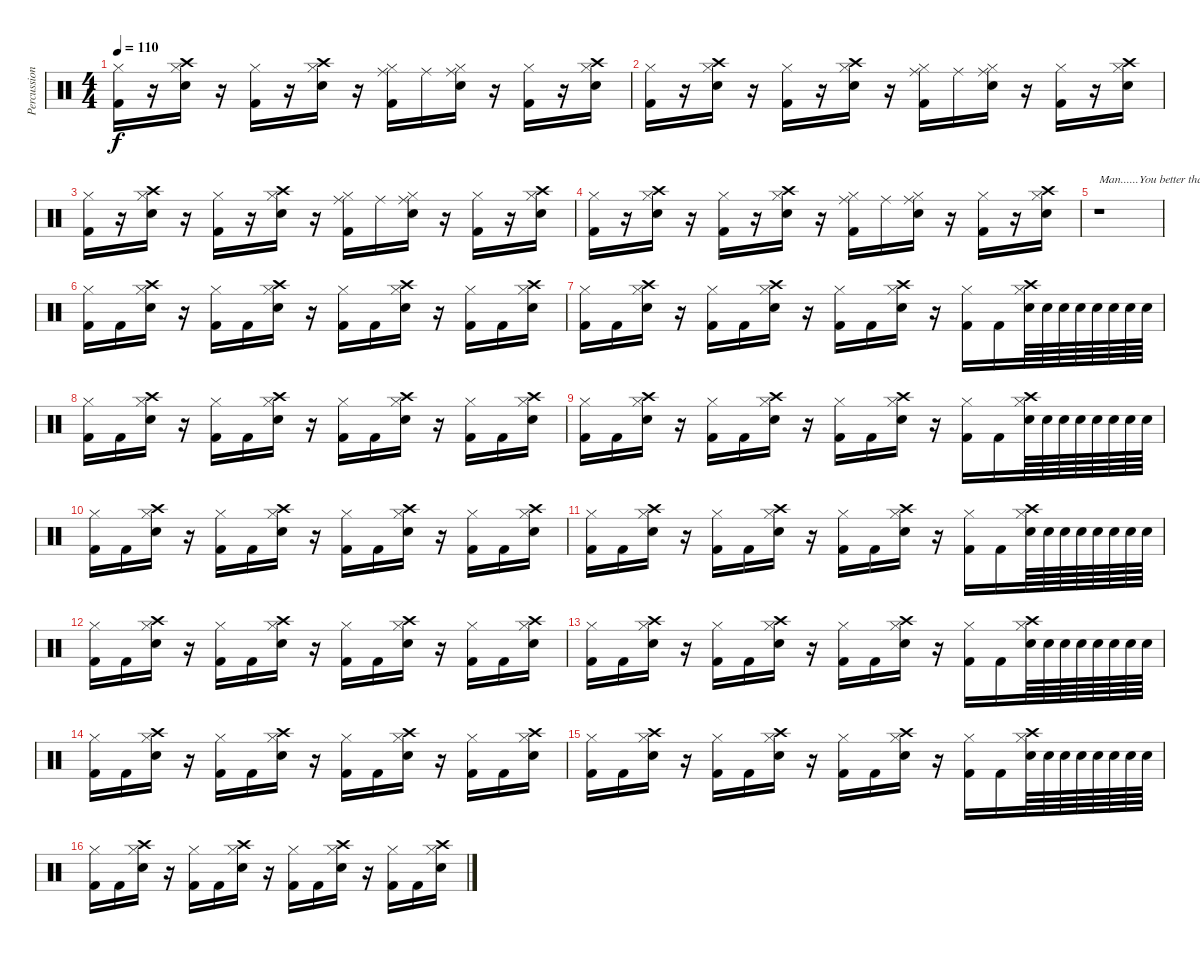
\track ("Percussion" "Percussion") {instrument percussion}
\staff {score}
\articulation defaults
\ts (4 4)
\tempo 110
\clef neutral
\ks c
("Hi-Hat (closed)" "Kick (hit) 2").16{dy f} r.16 ("Hi-Hat (closed)" "Crash high (hit)" "Electric Snare (hit)").16 r.16 ("Hi-Hat (closed)" "Kick (hit) 2").16 r.16 ("Hi-Hat (closed)" "Crash high (hit)" "Electric Snare (hit)").16 r.16 ("Hi-Hat (closed)" "Ride (middle)" "Kick (hit) 2").16 "Ride (middle)".16 ("Hi-Hat (closed)" "Ride (middle)" "Electric Snare (hit)").16 r.16 ("Hi-Hat (closed)" "Kick (hit) 2").16 r.16 ("Hi-Hat (closed)" "Crash high (hit)" "Electric Snare (hit)").16 |
("Hi-Hat (closed)" "Kick (hit) 2").16 r.16 ("Hi-Hat (closed)" "Crash high (hit)" "Electric Snare (hit)").16 r.16 ("Hi-Hat (closed)" "Kick (hit) 2").16 r.16 ("Hi-Hat (closed)" "Crash high (hit)" "Electric Snare (hit)").16 r.16 ("Hi-Hat (closed)" "Ride (middle)" "Kick (hit) 2").16 "Ride (middle)".16 ("Hi-Hat (closed)" "Ride (middle)" "Electric Snare (hit)").16 r.16 ("Hi-Hat (closed)" "Kick (hit) 2").16 r.16 ("Hi-Hat (closed)" "Crash high (hit)" "Electric Snare (hit)").16 |
("Hi-Hat (closed)" "Kick (hit) 2").16 r.16 ("Hi-Hat (closed)" "Crash high (hit)" "Electric Snare (hit)").16 r.16 ("Hi-Hat (closed)" "Kick (hit) 2").16 r.16 ("Hi-Hat (closed)" "Crash high (hit)" "Electric Snare (hit)").16 r.16 ("Hi-Hat (closed)" "Ride (middle)" "Kick (hit) 2").16 "Ride (middle)".16 ("Hi-Hat (closed)" "Ride (middle)" "Electric Snare (hit)").16 r.16 ("Hi-Hat (closed)" "Kick (hit) 2").16 r.16 ("Hi-Hat (closed)" "Crash high (hit)" "Electric Snare (hit)").16 |
("Hi-Hat (closed)" "Kick (hit) 2").16 r.16 ("Hi-Hat (closed)" "Crash high (hit)" "Electric Snare (hit)").16 r.16 ("Hi-Hat (closed)" "Kick (hit) 2").16 r.16 ("Hi-Hat (closed)" "Crash high (hit)" "Electric Snare (hit)").16 r.16 ("Hi-Hat (closed)" "Ride (middle)" "Kick (hit) 2").16 "Ride (middle)".16 ("Hi-Hat (closed)" "Ride (middle)" "Electric Snare (hit)").16 r.16 ("Hi-Hat (closed)" "Kick (hit) 2").16 r.16 ("Hi-Hat (closed)" "Crash high (hit)" "Electric Snare (hit)").16 |
r.1{txt "Man......You better than ever!"} |
("Hi-Hat (closed)" "Kick (hit) 2").16 "Kick (hit) 2".16 ("Hi-Hat (closed)" "Crash high (hit)" "Electric Snare (hit)").16 r.16 ("Hi-Hat (closed)" "Kick (hit) 2").16 "Kick (hit) 2".16 ("Hi-Hat (closed)" "Crash high (hit)" "Electric Snare (hit)").16 r.16 ("Hi-Hat (closed)" "Kick (hit) 2").16 "Kick (hit) 2".16 ("Hi-Hat (closed)" "Crash high (hit)" "Electric Snare (hit)").16 r.16 ("Hi-Hat (closed)" "Kick (hit) 2").16 "Kick (hit) 2".16 ("Hi-Hat (closed)" "Crash high (hit)" "Electric Snare (hit)").16 |
("Hi-Hat (closed)" "Kick (hit) 2").16 "Kick (hit) 2".16 ("Hi-Hat (closed)" "Crash high (hit)" "Electric Snare (hit)").16 r.16 ("Hi-Hat (closed)" "Kick (hit) 2").16 "Kick (hit) 2".16 ("Hi-Hat (closed)" "Crash high (hit)" "Electric Snare (hit)").16 r.16 ("Hi-Hat (closed)" "Kick (hit) 2").16 "Kick (hit) 2".16 ("Hi-Hat (closed)" "Crash high (hit)" "Electric Snare (hit)").16 r.16 ("Hi-Hat (closed)" "Kick (hit) 2").16 "Kick (hit) 2".16 ("Hi-Hat (closed)" "Crash high (hit)" "Electric Snare (hit)").64 "Electric Snare (hit)".64 "Electric Snare (hit)".64 "Electric Snare (hit)".64 "Electric Snare (hit)".64 "Electric Snare (hit)".64 "Electric Snare (hit)".64 "Electric Snare (hit)".64 |
("Hi-Hat (closed)" "Kick (hit) 2").16 "Kick (hit) 2".16 ("Hi-Hat (closed)" "Crash high (hit)" "Electric Snare (hit)").16 r.16 ("Hi-Hat (closed)" "Kick (hit) 2").16 "Kick (hit) 2".16 ("Hi-Hat (closed)" "Crash high (hit)" "Electric Snare (hit)").16 r.16 ("Hi-Hat (closed)" "Kick (hit) 2").16 "Kick (hit) 2".16 ("Hi-Hat (closed)" "Crash high (hit)" "Electric Snare (hit)").16 r.16 ("Hi-Hat (closed)" "Kick (hit) 2").16 "Kick (hit) 2".16 ("Hi-Hat (closed)" "Crash high (hit)" "Electric Snare (hit)").16 |
("Hi-Hat (closed)" "Kick (hit) 2").16 "Kick (hit) 2".16 ("Hi-Hat (closed)" "Crash high (hit)" "Electric Snare (hit)").16 r.16 ("Hi-Hat (closed)" "Kick (hit) 2").16 "Kick (hit) 2".16 ("Hi-Hat (closed)" "Crash high (hit)" "Electric Snare (hit)").16 r.16 ("Hi-Hat (closed)" "Kick (hit) 2").16 "Kick (hit) 2".16 ("Hi-Hat (closed)" "Crash high (hit)" "Electric Snare (hit)").16 r.16 ("Hi-Hat (closed)" "Kick (hit) 2").16 "Kick (hit) 2".16 ("Hi-Hat (closed)" "Crash high (hit)" "Electric Snare (hit)").64 "Electric Snare (hit)".64 "Electric Snare (hit)".64 "Electric Snare (hit)".64 "Electric Snare (hit)".64 "Electric Snare (hit)".64 "Electric Snare (hit)".64 "Electric Snare (hit)".64 |
("Hi-Hat (closed)" "Kick (hit) 2").16 "Kick (hit) 2".16 ("Hi-Hat (closed)" "Crash high (hit)" "Electric Snare (hit)").16 r.16 ("Hi-Hat (closed)" "Kick (hit) 2").16 "Kick (hit) 2".16 ("Hi-Hat (closed)" "Crash high (hit)" "Electric Snare (hit)").16 r.16 ("Hi-Hat (closed)" "Kick (hit) 2").16 "Kick (hit) 2".16 ("Hi-Hat (closed)" "Crash high (hit)" "Electric Snare (hit)").16 r.16 ("Hi-Hat (closed)" "Kick (hit) 2").16 "Kick (hit) 2".16 ("Hi-Hat (closed)" "Crash high (hit)" "Electric Snare (hit)").16 |
("Hi-Hat (closed)" "Kick (hit) 2").16 "Kick (hit) 2".16 ("Hi-Hat (closed)" "Crash high (hit)" "Electric Snare (hit)").16 r.16 ("Hi-Hat (closed)" "Kick (hit) 2").16 "Kick (hit) 2".16 ("Hi-Hat (closed)" "Crash high (hit)" "Electric Snare (hit)").16 r.16 ("Hi-Hat (closed)" "Kick (hit) 2").16 "Kick (hit) 2".16 ("Hi-Hat (closed)" "Crash high (hit)" "Electric Snare (hit)").16 r.16 ("Hi-Hat (closed)" "Kick (hit) 2").16 "Kick (hit) 2".16 ("Hi-Hat (closed)" "Crash high (hit)" "Electric Snare (hit)").64 "Electric Snare (hit)".64 "Electric Snare (hit)".64 "Electric Snare (hit)".64 "Electric Snare (hit)".64 "Electric Snare (hit)".64 "Electric Snare (hit)".64 "Electric Snare (hit)".64 |
("Hi-Hat (closed)" "Kick (hit) 2").16 "Kick (hit) 2".16 ("Hi-Hat (closed)" "Crash high (hit)" "Electric Snare (hit)").16 r.16 ("Hi-Hat (closed)" "Kick (hit) 2").16 "Kick (hit) 2".16 ("Hi-Hat (closed)" "Crash high (hit)" "Electric Snare (hit)").16 r.16 ("Hi-Hat (closed)" "Kick (hit) 2").16 "Kick (hit) 2".16 ("Hi-Hat (closed)" "Crash high (hit)" "Electric Snare (hit)").16 r.16 ("Hi-Hat (closed)" "Kick (hit) 2").16 "Kick (hit) 2".16 ("Hi-Hat (closed)" "Crash high (hit)" "Electric Snare (hit)").16 |
("Hi-Hat (closed)" "Kick (hit) 2").16 "Kick (hit) 2".16 ("Hi-Hat (closed)" "Crash high (hit)" "Electric Snare (hit)").16 r.16 ("Hi-Hat (closed)" "Kick (hit) 2").16 "Kick (hit) 2".16 ("Hi-Hat (closed)" "Crash high (hit)" "Electric Snare (hit)").16 r.16 ("Hi-Hat (closed)" "Kick (hit) 2").16 "Kick (hit) 2".16 ("Hi-Hat (closed)" "Crash high (hit)" "Electric Snare (hit)").16 r.16 ("Hi-Hat (closed)" "Kick (hit) 2").16 "Kick (hit) 2".16 ("Hi-Hat (closed)" "Crash high (hit)" "Electric Snare (hit)").64 "Electric Snare (hit)".64 "Electric Snare (hit)".64 "Electric Snare (hit)".64 "Electric Snare (hit)".64 "Electric Snare (hit)".64 "Electric Snare (hit)".64 "Electric Snare (hit)".64 |
("Hi-Hat (closed)" "Kick (hit) 2").16 "Kick (hit) 2".16 ("Hi-Hat (closed)" "Crash high (hit)" "Electric Snare (hit)").16 r.16 ("Hi-Hat (closed)" "Kick (hit) 2").16 "Kick (hit) 2".16 ("Hi-Hat (closed)" "Crash high (hit)" "Electric Snare (hit)").16 r.16 ("Hi-Hat (closed)" "Kick (hit) 2").16 "Kick (hit) 2".16 ("Hi-Hat (closed)" "Crash high (hit)" "Electric Snare (hit)").16 r.16 ("Hi-Hat (closed)" "Kick (hit) 2").16 "Kick (hit) 2".16 ("Hi-Hat (closed)" "Crash high (hit)" "Electric Snare (hit)").16 |
("Hi-Hat (closed)" "Kick (hit) 2").16 "Kick (hit) 2".16 ("Hi-Hat (closed)" "Crash high (hit)" "Electric Snare (hit)").16 r.16 ("Hi-Hat (closed)" "Kick (hit) 2").16 "Kick (hit) 2".16 ("Hi-Hat (closed)" "Crash high (hit)" "Electric Snare (hit)").16 r.16 ("Hi-Hat (closed)" "Kick (hit) 2").16 "Kick (hit) 2".16 ("Hi-Hat (closed)" "Crash high (hit)" "Electric Snare (hit)").16 r.16 ("Hi-Hat (closed)" "Kick (hit) 2").16 "Kick (hit) 2".16 ("Hi-Hat (closed)" "Crash high (hit)" "Electric Snare (hit)").64 "Electric Snare (hit)".64 "Electric Snare (hit)".64 "Electric Snare (hit)".64 "Electric Snare (hit)".64 "Electric Snare (hit)".64 "Electric Snare (hit)".64 "Electric Snare (hit)".64 |
("Hi-Hat (closed)" "Kick (hit) 2").16 "Kick (hit) 2".16 ("Hi-Hat (closed)" "Crash high (hit)" "Electric Snare (hit)").16 r.16 ("Hi-Hat (closed)" "Kick (hit) 2").16 "Kick (hit) 2".16 ("Hi-Hat (closed)" "Crash high (hit)" "Electric Snare (hit)").16 r.16 ("Hi-Hat (closed)" "Kick (hit) 2").16 "Kick (hit) 2".16 ("Hi-Hat (closed)" "Crash high (hit)" "Electric Snare (hit)").16 r.16 ("Hi-Hat (closed)" "Kick (hit) 2").16 "Kick (hit) 2".16 ("Hi-Hat (closed)" "Crash high (hit)" "Electric Snare (hit)").16
